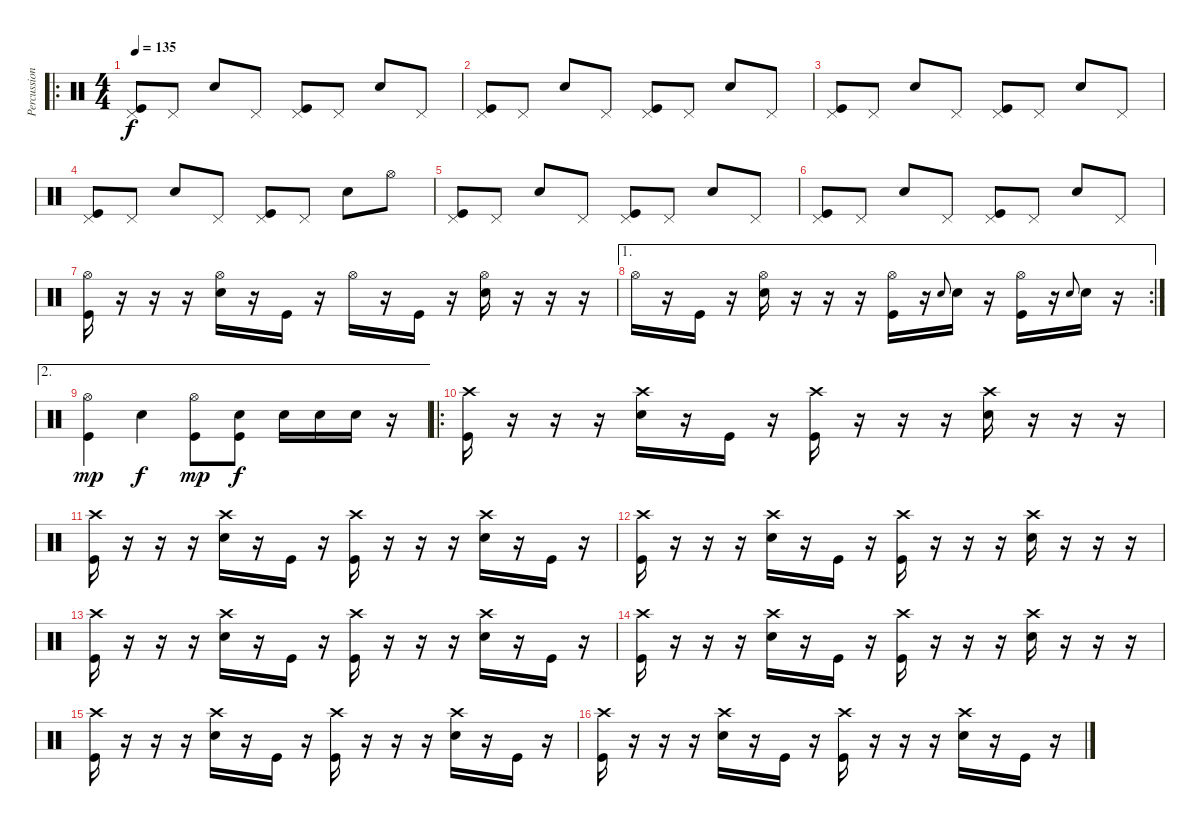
\track ("Percussion" "Percussion") {instrument percussion}
\staff {score}
\articulation defaults
\ro
\ts (4 4)
\tempo 135
\clef neutral
\ks c
("Pedal Hi-Hat (hit)" "Kick (hit)").8{dy f} "Pedal Hi-Hat (hit)".8 "Snare (hit) 2".8 "Pedal Hi-Hat (hit)".8 ("Pedal Hi-Hat (hit)" "Kick (hit)").8 "Pedal Hi-Hat (hit)".8 "Snare (hit) 2".8 "Pedal Hi-Hat (hit)".8 |
("Pedal Hi-Hat (hit)" "Kick (hit)").8 "Pedal Hi-Hat (hit)".8 "Snare (hit) 2".8 "Pedal Hi-Hat (hit)".8 ("Pedal Hi-Hat (hit)" "Kick (hit)").8 "Pedal Hi-Hat (hit)".8 "Snare (hit) 2".8 "Pedal Hi-Hat (hit)".8 |
("Pedal Hi-Hat (hit)" "Kick (hit)").8 "Pedal Hi-Hat (hit)".8 "Snare (hit) 2".8 "Pedal Hi-Hat (hit)".8 ("Pedal Hi-Hat (hit)" "Kick (hit)").8 "Pedal Hi-Hat (hit)".8 "Snare (hit) 2".8 "Pedal Hi-Hat (hit)".8 |
("Pedal Hi-Hat (hit)" "Kick (hit)").8 "Pedal Hi-Hat (hit)".8 "Snare (hit) 2".8 "Pedal Hi-Hat (hit)".8 ("Pedal Hi-Hat (hit)" "Kick (hit)").8 "Pedal Hi-Hat (hit)".8 "Snare (hit) 2".8 "Hi-Hat (open)".8 |
("Pedal Hi-Hat (hit)" "Kick (hit)").8 "Pedal Hi-Hat (hit)".8 "Snare (hit) 2".8 "Pedal Hi-Hat (hit)".8 ("Pedal Hi-Hat (hit)" "Kick (hit)").8 "Pedal Hi-Hat (hit)".8 "Snare (hit) 2".8 "Pedal Hi-Hat (hit)".8 |
("Pedal Hi-Hat (hit)" "Kick (hit)").8 "Pedal Hi-Hat (hit)".8 "Snare (hit) 2".8 "Pedal Hi-Hat (hit)".8 ("Pedal Hi-Hat (hit)" "Kick (hit)").8 "Pedal Hi-Hat (hit)".8 "Snare (hit) 2".8 "Pedal Hi-Hat (hit)".8 |
("Hi-Hat (open)" "Kick (hit)").16 r.16 r.16 r.16 ("Hi-Hat (open)" "Snare (hit) 2").16 r.16 "Kick (hit)".16 r.16 "Hi-Hat (open)".16 r.16 "Kick (hit)".16 r.16 ("Hi-Hat (open)" "Snare (hit) 2").16 r.16 r.16 r.16 |
\ae 1
\rc 2 "Hi-Hat (open)".16
r.16 "Kick (hit)".16 r.16 ("Hi-Hat (open)" "Snare (hit) 2").16 r.16 r.16 r.16 ("Hi-Hat (open)" "Kick (hit)").16 r.16 "Snare (hit) 2".8{gr onbeat} "Snare (hit) 2".16 r.16 ("Hi-Hat (open)" "Kick (hit)").16 r.16 "Snare (hit) 2".8{gr onbeat} "Snare (hit) 2".16 r.16 |
\ae 2
("Hi-Hat (open)" "Kick (hit)").4{dy mp} "Snare (hit) 2".4{dy f} ("Hi-Hat (open)" "Kick (hit)").8{dy mp} ("Snare (hit) 2" "Kick (hit)").8{dy f} "Snare (hit) 2".16 "Snare (hit) 2".16 "Snare (hit) 2".16 r.16 |
\ro
("Crash high (hit)" "Kick (hit)").16 r.16 r.16 r.16 ("Crash high (hit)" "Snare (hit) 2").16 r.16 "Kick (hit)".16 r.16 ("Crash high (hit)" "Kick (hit)").16 r.16 r.16 r.16 ("Crash high (hit)" "Snare (hit) 2").16 r.16 r.16 r.16 |
("Crash high (hit)" "Kick (hit)").16 r.16 r.16 r.16 ("Crash high (hit)" "Snare (hit) 2").16 r.16 "Kick (hit)".16 r.16 ("Crash high (hit)" "Kick (hit)").16 r.16 r.16 r.16 ("Crash high (hit)" "Snare (hit) 2").16 r.16 "Kick (hit)".16 r.16 |
("Crash high (hit)" "Kick (hit)").16 r.16 r.16 r.16 ("Crash high (hit)" "Snare (hit) 2").16 r.16 "Kick (hit)".16 r.16 ("Crash high (hit)" "Kick (hit)").16 r.16 r.16 r.16 ("Crash high (hit)" "Snare (hit) 2").16 r.16 r.16 r.16 |
("Crash high (hit)" "Kick (hit)").16 r.16 r.16 r.16 ("Crash high (hit)" "Snare (hit) 2").16 r.16 "Kick (hit)".16 r.16 ("Crash high (hit)" "Kick (hit)").16 r.16 r.16 r.16 ("Crash high (hit)" "Snare (hit) 2").16 r.16 "Kick (hit)".16 r.16 |
("Crash high (hit)" "Kick (hit)").16 r.16 r.16 r.16 ("Crash high (hit)" "Snare (hit) 2").16 r.16 "Kick (hit)".16 r.16 ("Crash high (hit)" "Kick (hit)").16 r.16 r.16 r.16 ("Crash high (hit)" "Snare (hit) 2").16 r.16 r.16 r.16 |
("Crash high (hit)" "Kick (hit)").16 r.16 r.16 r.16 ("Crash high (hit)" "Snare (hit) 2").16 r.16 "Kick (hit)".16 r.16 ("Crash high (hit)" "Kick (hit)").16 r.16 r.16 r.16 ("Crash high (hit)" "Snare (hit) 2").16 r.16 "Kick (hit)".16 r.16 |
("Crash high (hit)" "Kick (hit)").16 r.16 r.16 r.16 ("Crash high (hit)" "Snare (hit) 2").16 r.16 "Kick (hit)".16 r.16 ("Crash high (hit)" "Kick (hit)").16 r.16 r.16 r.16 ("Crash high (hit)" "Snare (hit) 2").16 r.16 "Kick (hit)".16 r.16
